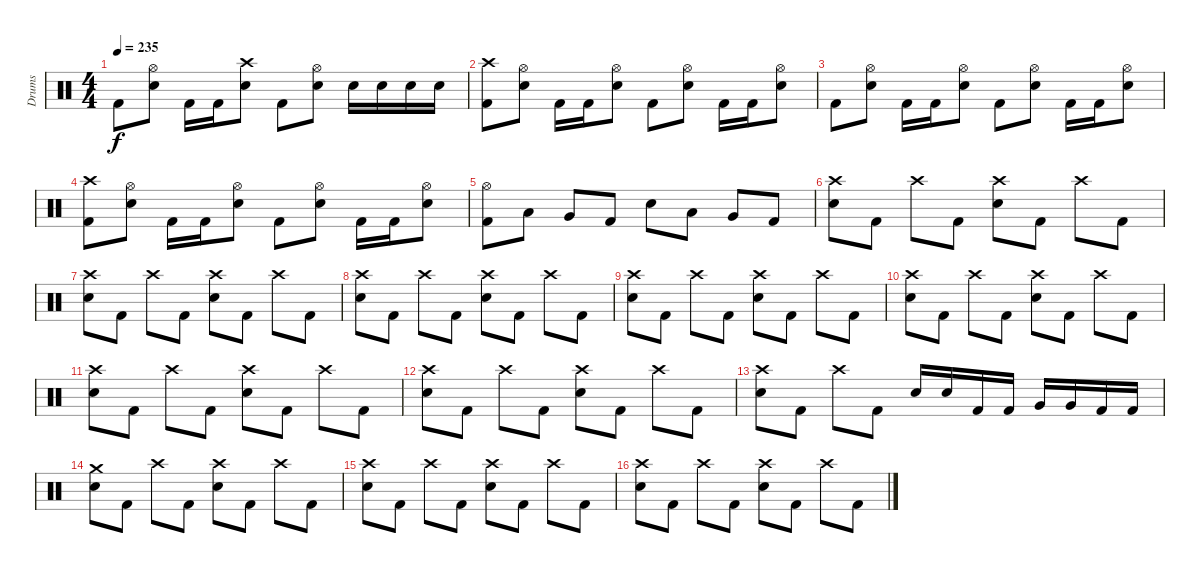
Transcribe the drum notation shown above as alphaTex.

\track ("Drums" "Drums") {instrument percussion}
\staff {score}
\articulation defaults
\ts (4 4)
\tempo 235
\clef neutral
\ks c "Kick (hit) 2".8{dy f}
("Hi-Hat (open)" "Electric Snare (hit)").8 "Kick (hit) 2".16 "Kick (hit) 2".16 ("Crash high (hit)" "Electric Snare (hit)").8 "Kick (hit) 2".8 ("Hi-Hat (open)" "Electric Snare (hit)").8 "Electric Snare (hit)".16 "Electric Snare (hit)".16 "Electric Snare (hit)".16 "Electric Snare (hit)".16 |
("Crash high (hit)" "Kick (hit) 2").8 ("Hi-Hat (open)" "Electric Snare (hit)").8 "Kick (hit) 2".16 "Kick (hit) 2".16 ("Hi-Hat (open)" "Electric Snare (hit)").8 "Kick (hit) 2".8 ("Hi-Hat (open)" "Electric Snare (hit)").8 "Kick (hit) 2".16 "Kick (hit) 2".16 ("Hi-Hat (open)" "Electric Snare (hit)").8 |
"Kick (hit) 2".8 ("Hi-Hat (open)" "Electric Snare (hit)").8 "Kick (hit) 2".16 "Kick (hit) 2".16 ("Hi-Hat (open)" "Electric Snare (hit)").8 "Kick (hit) 2".8 ("Hi-Hat (open)" "Electric Snare (hit)").8 "Kick (hit) 2".16 "Kick (hit) 2".16 ("Hi-Hat (open)" "Electric Snare (hit)").8 |
("Crash high (hit)" "Kick (hit) 2").8 ("Hi-Hat (open)" "Electric Snare (hit)").8 "Kick (hit) 2".16 "Kick (hit) 2".16 ("Hi-Hat (open)" "Electric Snare (hit)").8 "Kick (hit) 2".8 ("Hi-Hat (open)" "Electric Snare (hit)").8 "Kick (hit) 2".16 "Kick (hit) 2".16 ("Hi-Hat (open)" "Electric Snare (hit)").8 |
("Hi-Hat (open)" "Kick (hit) 2").8 "Low Tom (hit)".8 "Very Low Tom (hit)".8 "Kick (hit) 2".8 "Electric Snare (hit)".8 "Low Tom (hit)".8 "Very Low Tom (hit)".8 "Kick (hit) 2".8 |
("Crash high (hit)" "Electric Snare (hit)").8 "Kick (hit) 2".8 "Crash high (hit)".8 "Kick (hit) 2".8 ("Crash high (hit)" "Electric Snare (hit)").8 "Kick (hit) 2".8 "Crash high (hit)".8 "Kick (hit) 2".8 |
("Crash high (hit)" "Electric Snare (hit)").8 "Kick (hit) 2".8 "Crash high (hit)".8 "Kick (hit) 2".8 ("Crash high (hit)" "Electric Snare (hit)").8 "Kick (hit) 2".8 "Crash high (hit)".8 "Kick (hit) 2".8 |
("Crash high (hit)" "Electric Snare (hit)").8 "Kick (hit) 2".8 "Crash high (hit)".8 "Kick (hit) 2".8 ("Crash high (hit)" "Electric Snare (hit)").8 "Kick (hit) 2".8 "Crash high (hit)".8 "Kick (hit) 2".8 |
("Crash high (hit)" "Electric Snare (hit)").8 "Kick (hit) 2".8 "Crash high (hit)".8 "Kick (hit) 2".8 ("Crash high (hit)" "Electric Snare (hit)").8 "Kick (hit) 2".8 "Crash high (hit)".8 "Kick (hit) 2".8 |
("Crash high (hit)" "Electric Snare (hit)").8 "Kick (hit) 2".8 "Crash high (hit)".8 "Kick (hit) 2".8 ("Crash high (hit)" "Electric Snare (hit)").8 "Kick (hit) 2".8 "Crash high (hit)".8 "Kick (hit) 2".8 |
("Crash high (hit)" "Electric Snare (hit)").8 "Kick (hit) 2".8 "Crash high (hit)".8 "Kick (hit) 2".8 ("Crash high (hit)" "Electric Snare (hit)").8 "Kick (hit) 2".8 "Crash high (hit)".8 "Kick (hit) 2".8 |
("Crash high (hit)" "Electric Snare (hit)").8 "Kick (hit) 2".8 "Crash high (hit)".8 "Kick (hit) 2".8 ("Crash high (hit)" "Electric Snare (hit)").8 "Kick (hit) 2".8 "Crash high (hit)".8 "Kick (hit) 2".8 |
("Crash high (hit)" "Electric Snare (hit)").8 "Kick (hit) 2".8 "Crash high (hit)".8 "Kick (hit) 2".8 "Electric Snare (hit)".16 "Electric Snare (hit)".16 "Kick (hit) 2".16 "Kick (hit) 2".16 "Very Low Tom (hit)".16 "Very Low Tom (hit)".16 "Kick (hit) 2".16 "Kick (hit) 2".16 |
("Crash medium (hit)" "Electric Snare (hit)").8 "Kick (hit) 2".8 "Crash high (hit)".8 "Kick (hit) 2".8 ("Crash high (hit)" "Electric Snare (hit)").8 "Kick (hit) 2".8 "Crash high (hit)".8 "Kick (hit) 2".8 |
("Crash high (hit)" "Electric Snare (hit)").8 "Kick (hit) 2".8 "Crash high (hit)".8 "Kick (hit) 2".8 ("Crash high (hit)" "Electric Snare (hit)").8 "Kick (hit) 2".8 "Crash high (hit)".8 "Kick (hit) 2".8 |
("Crash high (hit)" "Electric Snare (hit)").8 "Kick (hit) 2".8 "Crash high (hit)".8 "Kick (hit) 2".8 ("Crash high (hit)" "Electric Snare (hit)").8 "Kick (hit) 2".8 "Crash high (hit)".8 "Kick (hit) 2".8
